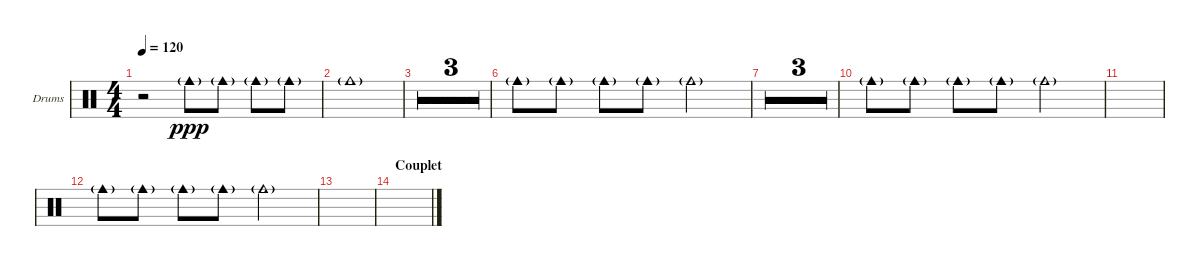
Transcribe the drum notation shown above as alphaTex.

\defaultSystemsLayout 4
\bracketExtendMode groupsimilarinstruments
\firstSystemTrackNameOrientation horizontal
\otherSystemsTrackNameOrientation horizontal
\track ("Cow Bell" "Drums") {multiBarRest instrument percussion}
\staff {score}
\articulation defaults
\ts (4 4)
\tempo 120
\clef neutral
\ks c
r.2{dy f} "Cowbell medium (hit)"{g}.8{dy ppp} "Cowbell medium (hit)"{g}.8 "Cowbell medium (hit)"{g}.8 "Cowbell medium (hit)"{g}.8 |
"Cowbell medium (hit)"{g}.1 |
|
|
|
"Cowbell medium (hit)"{g}.8 "Cowbell medium (hit)"{g}.8 "Cowbell medium (hit)"{g}.8 "Cowbell medium (hit)"{g}.8 "Cowbell medium (hit)"{g}.2 |
|
|
|
"Cowbell medium (hit)"{g}.8 "Cowbell medium (hit)"{g}.8 "Cowbell medium (hit)"{g}.8 "Cowbell medium (hit)"{g}.8 "Cowbell medium (hit)"{g}.2 |
|
"Cowbell medium (hit)"{g}.8 "Cowbell medium (hit)"{g}.8 "Cowbell medium (hit)"{g}.8 "Cowbell medium (hit)"{g}.8 "Cowbell medium (hit)"{g}.2 |
|
\section ("" "Couplet")
